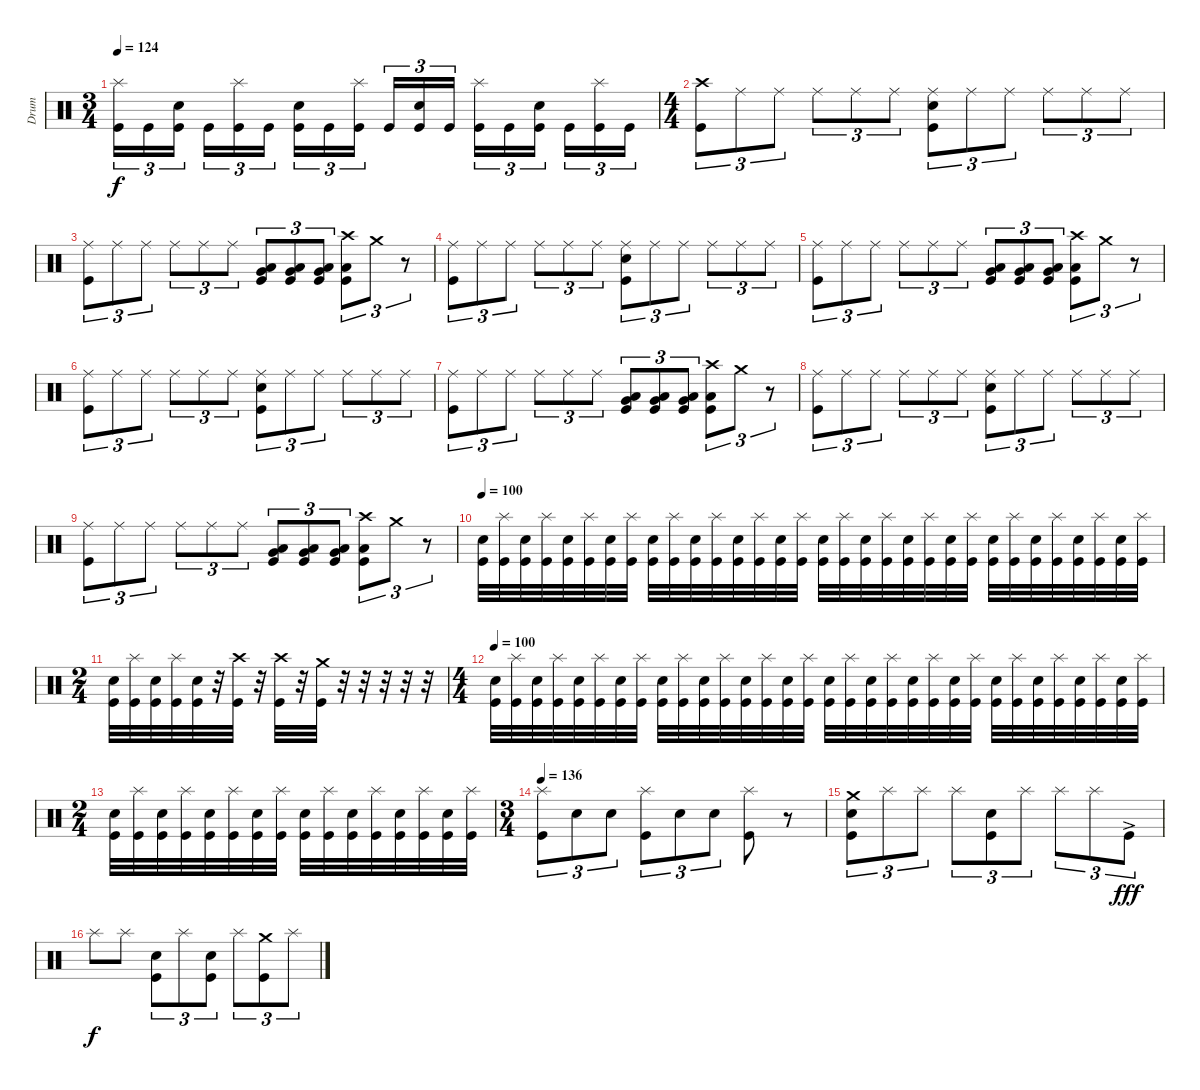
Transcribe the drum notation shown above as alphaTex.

\track ("Drum" "Drum") {instrument percussion}
\staff
\articulation defaults
\ts (3 4)
\tempo 124
\clef neutral
\ks c
("Splash (hit)" "Kick (hit)").16{tu (3 2) dy f} "Kick (hit)".16{tu (3 2)} ("Electric Snare (hit)" "Kick (hit)").16{tu (3 2) beam splitsecondary} "Kick (hit)".16{tu (3 2)} ("Splash (hit)" "Kick (hit)").16{tu (3 2)} "Kick (hit)".16{tu (3 2)} ("Electric Snare (hit)" "Kick (hit)").16{tu (3 2)} "Kick (hit)".16{tu (3 2)} ("Splash (hit)" "Kick (hit)").16{tu (3 2) beam splitsecondary} "Kick (hit)".16{tu (3 2)} ("Electric Snare (hit)" "Kick (hit)").16{tu (3 2)} "Kick (hit)".16{tu (3 2)} ("Splash (hit)" "Kick (hit)").16{tu (3 2)} "Kick (hit)".16{tu (3 2)} ("Electric Snare (hit)" "Kick (hit)").16{tu (3 2) beam splitsecondary} "Kick (hit)".16{tu (3 2)} ("Splash (hit)" "Kick (hit)").16{tu (3 2)} "Kick (hit)".16{tu (3 2)} |
\ts (4 4)
("Crash high (hit)" "Kick (hit)").8{tu (3 2)} "Ride (middle)".8{tu (3 2)} "Ride (middle)".8{tu (3 2)} "Ride (middle)".8{tu (3 2)} "Ride (middle)".8{tu (3 2)} "Ride (middle)".8{tu (3 2)} ("Ride (middle)" "Electric Snare (hit)" "Kick (hit)").8{tu (3 2)} "Ride (middle)".8{tu (3 2)} "Ride (middle)".8{tu (3 2)} "Ride (middle)".8{tu (3 2)} "Ride (middle)".8{tu (3 2)} "Ride (middle)".8{tu (3 2)} |
("Ride (middle)" "Kick (hit)").8{tu (3 2)} "Ride (middle)".8{tu (3 2)} "Ride (middle)".8{tu (3 2)} "Ride (middle)".8{tu (3 2)} "Ride (middle)".8{tu (3 2)} "Ride (middle)".8{tu (3 2)} ("Very Low Tom (hit)" "Low Floor Tom (hit)" "Kick (hit)").8{tu (3 2)} ("Very Low Tom (hit)" "Low Floor Tom (hit)" "Kick (hit)").8{tu (3 2)} ("Very Low Tom (hit)" "Low Floor Tom (hit)" "Kick (hit)").8{tu (3 2)} ("Crash high (hit)" "Low Floor Tom (hit)" "Kick (hit)").8{tu (3 2)} "Crash medium (hit)".8{tu (3 2)} r.8{tu (3 2)} |
("Ride (middle)" "Kick (hit)").8{tu (3 2)} "Ride (middle)".8{tu (3 2)} "Ride (middle)".8{tu (3 2)} "Ride (middle)".8{tu (3 2)} "Ride (middle)".8{tu (3 2)} "Ride (middle)".8{tu (3 2)} ("Ride (middle)" "Electric Snare (hit)" "Kick (hit)").8{tu (3 2)} "Ride (middle)".8{tu (3 2)} "Ride (middle)".8{tu (3 2)} "Ride (middle)".8{tu (3 2)} "Ride (middle)".8{tu (3 2)} "Ride (middle)".8{tu (3 2)} |
("Ride (middle)" "Kick (hit)").8{tu (3 2)} "Ride (middle)".8{tu (3 2)} "Ride (middle)".8{tu (3 2)} "Ride (middle)".8{tu (3 2)} "Ride (middle)".8{tu (3 2)} "Ride (middle)".8{tu (3 2)} ("Very Low Tom (hit)" "Low Floor Tom (hit)" "Kick (hit)").8{tu (3 2)} ("Very Low Tom (hit)" "Low Floor Tom (hit)" "Kick (hit)").8{tu (3 2)} ("Very Low Tom (hit)" "Low Floor Tom (hit)" "Kick (hit)").8{tu (3 2)} ("Crash high (hit)" "Low Floor Tom (hit)" "Kick (hit)").8{tu (3 2)} "Crash medium (hit)".8{tu (3 2)} r.8{tu (3 2)} |
("Ride (middle)" "Kick (hit)").8{tu (3 2)} "Ride (middle)".8{tu (3 2)} "Ride (middle)".8{tu (3 2)} "Ride (middle)".8{tu (3 2)} "Ride (middle)".8{tu (3 2)} "Ride (middle)".8{tu (3 2)} ("Ride (middle)" "Electric Snare (hit)" "Kick (hit)").8{tu (3 2)} "Ride (middle)".8{tu (3 2)} "Ride (middle)".8{tu (3 2)} "Ride (middle)".8{tu (3 2)} "Ride (middle)".8{tu (3 2)} "Ride (middle)".8{tu (3 2)} |
("Ride (middle)" "Kick (hit)").8{tu (3 2)} "Ride (middle)".8{tu (3 2)} "Ride (middle)".8{tu (3 2)} "Ride (middle)".8{tu (3 2)} "Ride (middle)".8{tu (3 2)} "Ride (middle)".8{tu (3 2)} ("Very Low Tom (hit)" "Low Floor Tom (hit)" "Kick (hit)").8{tu (3 2)} ("Very Low Tom (hit)" "Low Floor Tom (hit)" "Kick (hit)").8{tu (3 2)} ("Very Low Tom (hit)" "Low Floor Tom (hit)" "Kick (hit)").8{tu (3 2)} ("Crash high (hit)" "Low Floor Tom (hit)" "Kick (hit)").8{tu (3 2)} "Crash medium (hit)".8{tu (3 2)} r.8{tu (3 2)} |
("Ride (middle)" "Kick (hit)").8{tu (3 2)} "Ride (middle)".8{tu (3 2)} "Ride (middle)".8{tu (3 2)} "Ride (middle)".8{tu (3 2)} "Ride (middle)".8{tu (3 2)} "Ride (middle)".8{tu (3 2)} ("Ride (middle)" "Electric Snare (hit)" "Kick (hit)").8{tu (3 2)} "Ride (middle)".8{tu (3 2)} "Ride (middle)".8{tu (3 2)} "Ride (middle)".8{tu (3 2)} "Ride (middle)".8{tu (3 2)} "Ride (middle)".8{tu (3 2)} |
("Ride (middle)" "Kick (hit)").8{tu (3 2)} "Ride (middle)".8{tu (3 2)} "Ride (middle)".8{tu (3 2)} "Ride (middle)".8{tu (3 2)} "Ride (middle)".8{tu (3 2)} "Ride (middle)".8{tu (3 2)} ("Very Low Tom (hit)" "Low Floor Tom (hit)" "Kick (hit)").8{tu (3 2)} ("Very Low Tom (hit)" "Low Floor Tom (hit)" "Kick (hit)").8{tu (3 2)} ("Very Low Tom (hit)" "Low Floor Tom (hit)" "Kick (hit)").8{tu (3 2)} ("Crash high (hit)" "Low Floor Tom (hit)" "Kick (hit)").8{tu (3 2)} "Crash medium (hit)".8{tu (3 2)} r.8{tu (3 2)} |
\tempo 100
("Electric Snare (hit)" "Kick (hit)").32 ("Splash (hit)" "Kick (hit)").32 ("Electric Snare (hit)" "Kick (hit)").32 ("Splash (hit)" "Kick (hit)").32 ("Electric Snare (hit)" "Kick (hit)").32 ("Splash (hit)" "Kick (hit)").32 ("Electric Snare (hit)" "Kick (hit)").32 ("Splash (hit)" "Kick (hit)").32 ("Electric Snare (hit)" "Kick (hit)").32 ("Splash (hit)" "Kick (hit)").32 ("Electric Snare (hit)" "Kick (hit)").32 ("Splash (hit)" "Kick (hit)").32 ("Electric Snare (hit)" "Kick (hit)").32 ("Splash (hit)" "Kick (hit)").32 ("Electric Snare (hit)" "Kick (hit)").32 ("Splash (hit)" "Kick (hit)").32 ("Electric Snare (hit)" "Kick (hit)").32 ("Splash (hit)" "Kick (hit)").32 ("Electric Snare (hit)" "Kick (hit)").32 ("Splash (hit)" "Kick (hit)").32 ("Electric Snare (hit)" "Kick (hit)").32 ("Splash (hit)" "Kick (hit)").32 ("Electric Snare (hit)" "Kick (hit)").32 ("Splash (hit)" "Kick (hit)").32 ("Electric Snare (hit)" "Kick (hit)").32 ("Splash (hit)" "Kick (hit)").32 ("Electric Snare (hit)" "Kick (hit)").32 ("Splash (hit)" "Kick (hit)").32 ("Electric Snare (hit)" "Kick (hit)").32 ("Splash (hit)" "Kick (hit)").32 ("Electric Snare (hit)" "Kick (hit)").32 ("Splash (hit)" "Kick (hit)").32 |
\ts (2 4)
("Electric Snare (hit)" "Kick (hit)").32 ("Splash (hit)" "Kick (hit)").32 ("Electric Snare (hit)" "Kick (hit)").32 ("Splash (hit)" "Kick (hit)").32 ("Electric Snare (hit)" "Kick (hit)").32 r.32 ("Crash high (hit)" "Kick (hit)").32 r.32 ("Crash high (hit)" "Kick (hit)").32 r.32 ("Crash medium (hit)" "Kick (hit)").32 r.32 r.32 r.32 r.32 r.32 |
\ts (4 4)
\tempo 100
("Electric Snare (hit)" "Kick (hit)").32 ("Splash (hit)" "Kick (hit)").32 ("Electric Snare (hit)" "Kick (hit)").32 ("Splash (hit)" "Kick (hit)").32 ("Electric Snare (hit)" "Kick (hit)").32 ("Splash (hit)" "Kick (hit)").32 ("Electric Snare (hit)" "Kick (hit)").32 ("Splash (hit)" "Kick (hit)").32 ("Electric Snare (hit)" "Kick (hit)").32 ("Splash (hit)" "Kick (hit)").32 ("Electric Snare (hit)" "Kick (hit)").32 ("Splash (hit)" "Kick (hit)").32 ("Electric Snare (hit)" "Kick (hit)").32 ("Splash (hit)" "Kick (hit)").32 ("Electric Snare (hit)" "Kick (hit)").32 ("Splash (hit)" "Kick (hit)").32 ("Electric Snare (hit)" "Kick (hit)").32 ("Splash (hit)" "Kick (hit)").32 ("Electric Snare (hit)" "Kick (hit)").32 ("Splash (hit)" "Kick (hit)").32 ("Electric Snare (hit)" "Kick (hit)").32 ("Splash (hit)" "Kick (hit)").32 ("Electric Snare (hit)" "Kick (hit)").32 ("Splash (hit)" "Kick (hit)").32 ("Electric Snare (hit)" "Kick (hit)").32 ("Splash (hit)" "Kick (hit)").32 ("Electric Snare (hit)" "Kick (hit)").32 ("Splash (hit)" "Kick (hit)").32 ("Electric Snare (hit)" "Kick (hit)").32 ("Splash (hit)" "Kick (hit)").32 ("Electric Snare (hit)" "Kick (hit)").32 ("Splash (hit)" "Kick (hit)").32 |
\ts (2 4)
("Electric Snare (hit)" "Kick (hit)").32 ("Splash (hit)" "Kick (hit)").32 ("Electric Snare (hit)" "Kick (hit)").32 ("Splash (hit)" "Kick (hit)").32 ("Electric Snare (hit)" "Kick (hit)").32 ("Splash (hit)" "Kick (hit)").32 ("Electric Snare (hit)" "Kick (hit)").32 ("Splash (hit)" "Kick (hit)").32 ("Electric Snare (hit)" "Kick (hit)").32 ("Splash (hit)" "Kick (hit)").32 ("Electric Snare (hit)" "Kick (hit)").32 ("Splash (hit)" "Kick (hit)").32 ("Electric Snare (hit)" "Kick (hit)").32 ("Splash (hit)" "Kick (hit)").32 ("Electric Snare (hit)" "Kick (hit)").32 ("Splash (hit)" "Kick (hit)").32 |
\ts (3 4)
\tempo 136
("Splash (hit)" "Kick (hit)").8{tu (3 2)} "Electric Snare (hit)".8{tu (3 2)} "Electric Snare (hit)".8{tu (3 2)} ("Splash (hit)" "Kick (hit)").8{tu (3 2)} "Electric Snare (hit)".8{tu (3 2)} "Electric Snare (hit)".8{tu (3 2)} ("Splash (hit)" "Kick (hit)").8 r.8 |
("Crash medium (hit)" "Electric Snare (hit)" "Kick (hit)").8{tu (3 2)} "Splash (hit)".8{tu (3 2)} "Splash (hit)".8{tu (3 2)} "Splash (hit)".8{tu (3 2)} ("Electric Snare (hit)" "Kick (hit)").8{tu (3 2)} "Splash (hit)".8{tu (3 2)} "Splash (hit)".8{tu (3 2)} "Splash (hit)".8{tu (3 2)} "Kick (hit)"{ac}.8{tu (3 2) dy fff} |
"Splash (hit)".8{dy f} "Splash (hit)".8 ("Electric Snare (hit)" "Kick (hit)").8{tu (3 2)} "Splash (hit)".8{tu (3 2)} ("Electric Snare (hit)" "Kick (hit)").8{tu (3 2)} "Splash (hit)".8{tu (3 2)} ("Crash medium (hit)" "Kick (hit)").8{tu (3 2)} "Splash (hit)".8{tu (3 2)}
